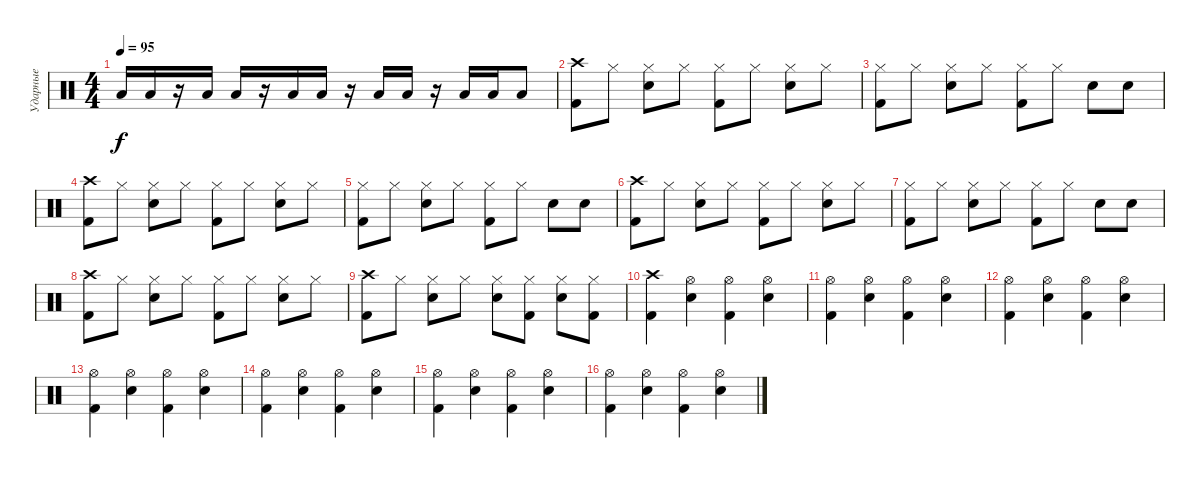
\track ("Ударные" "Ударные") {instrument percussion}
\staff {score}
\articulation defaults
\ts (4 4)
\tempo 95
\clef neutral
\ks c "Low Floor Tom (hit)".16{dy f} "Low Floor Tom (hit)".16
r.16 "Low Floor Tom (hit)".16 "Low Floor Tom (hit)".16 r.16 "Low Floor Tom (hit)".16 "Low Floor Tom (hit)".16 r.16 "Low Floor Tom (hit)".16 "Low Floor Tom (hit)".16 r.16 "Low Floor Tom (hit)".16 "Low Floor Tom (hit)".16 "Low Floor Tom (hit)".8 |
("Crash high (hit)" "Kick (hit) 2").8 "Hi-Hat (closed)".8 ("Hi-Hat (closed)" "Snare (hit) 2").8 "Hi-Hat (closed)".8 ("Hi-Hat (closed)" "Kick (hit) 2").8 "Hi-Hat (closed)".8 ("Hi-Hat (closed)" "Snare (hit) 2").8 "Hi-Hat (closed)".8 |
("Hi-Hat (closed)" "Kick (hit) 2").8 "Hi-Hat (closed)".8 ("Hi-Hat (closed)" "Snare (hit) 2").8 "Hi-Hat (closed)".8 ("Hi-Hat (closed)" "Kick (hit) 2").8 "Hi-Hat (closed)".8 "Snare (hit) 2".8 "Snare (hit) 2".8 |
("Crash high (hit)" "Kick (hit) 2").8 "Hi-Hat (closed)".8 ("Hi-Hat (closed)" "Snare (hit) 2").8 "Hi-Hat (closed)".8 ("Hi-Hat (closed)" "Kick (hit) 2").8 "Hi-Hat (closed)".8 ("Hi-Hat (closed)" "Snare (hit) 2").8 "Hi-Hat (closed)".8 |
("Hi-Hat (closed)" "Kick (hit) 2").8 "Hi-Hat (closed)".8 ("Hi-Hat (closed)" "Snare (hit) 2").8 "Hi-Hat (closed)".8 ("Hi-Hat (closed)" "Kick (hit) 2").8 "Hi-Hat (closed)".8 "Snare (hit) 2".8 "Snare (hit) 2".8 |
("Crash high (hit)" "Kick (hit) 2").8 "Hi-Hat (closed)".8 ("Hi-Hat (closed)" "Snare (hit) 2").8 "Hi-Hat (closed)".8 ("Hi-Hat (closed)" "Kick (hit) 2").8 "Hi-Hat (closed)".8 ("Hi-Hat (closed)" "Snare (hit) 2").8 "Hi-Hat (closed)".8 |
("Hi-Hat (closed)" "Kick (hit) 2").8 "Hi-Hat (closed)".8 ("Hi-Hat (closed)" "Snare (hit) 2").8 "Hi-Hat (closed)".8 ("Hi-Hat (closed)" "Kick (hit) 2").8 "Hi-Hat (closed)".8 "Snare (hit) 2".8 "Snare (hit) 2".8 |
("Crash high (hit)" "Kick (hit) 2").8 "Hi-Hat (closed)".8 ("Hi-Hat (closed)" "Snare (hit) 2").8 "Hi-Hat (closed)".8 ("Hi-Hat (closed)" "Kick (hit) 2").8 "Hi-Hat (closed)".8 ("Hi-Hat (closed)" "Snare (hit) 2").8 "Hi-Hat (closed)".8 |
("Crash high (hit)" "Kick (hit) 2").8 "Hi-Hat (closed)".8 ("Hi-Hat (closed)" "Snare (hit) 2").8 "Hi-Hat (closed)".8 ("Hi-Hat (closed)" "Snare (hit) 2").8 ("Hi-Hat (closed)" "Kick (hit) 2").8 ("Hi-Hat (closed)" "Snare (hit) 2").8 ("Hi-Hat (closed)" "Kick (hit) 2").8 |
("Crash high (hit)" "Kick (hit) 2").4 ("Hi-Hat (open)" "Snare (hit) 2").4 ("Hi-Hat (open)" "Kick (hit) 2").4 ("Hi-Hat (open)" "Snare (hit) 2").4 |
("Hi-Hat (open)" "Kick (hit) 2").4 ("Hi-Hat (open)" "Snare (hit) 2").4 ("Hi-Hat (open)" "Kick (hit) 2").4 ("Hi-Hat (open)" "Snare (hit) 2").4 |
("Hi-Hat (open)" "Kick (hit) 2").4 ("Hi-Hat (open)" "Snare (hit) 2").4 ("Hi-Hat (open)" "Kick (hit) 2").4 ("Hi-Hat (open)" "Snare (hit) 2").4 |
("Hi-Hat (open)" "Kick (hit) 2").4 ("Hi-Hat (open)" "Snare (hit) 2").4 ("Hi-Hat (open)" "Kick (hit) 2").4 ("Hi-Hat (open)" "Snare (hit) 2").4 |
("Hi-Hat (open)" "Kick (hit) 2").4 ("Hi-Hat (open)" "Snare (hit) 2").4 ("Hi-Hat (open)" "Kick (hit) 2").4 ("Hi-Hat (open)" "Snare (hit) 2").4 |
("Hi-Hat (open)" "Kick (hit) 2").4 ("Hi-Hat (open)" "Snare (hit) 2").4 ("Hi-Hat (open)" "Kick (hit) 2").4 ("Hi-Hat (open)" "Snare (hit) 2").4 |
("Hi-Hat (open)" "Kick (hit) 2").4 ("Hi-Hat (open)" "Snare (hit) 2").4 ("Hi-Hat (open)" "Kick (hit) 2").4 ("Hi-Hat (open)" "Snare (hit) 2").4
